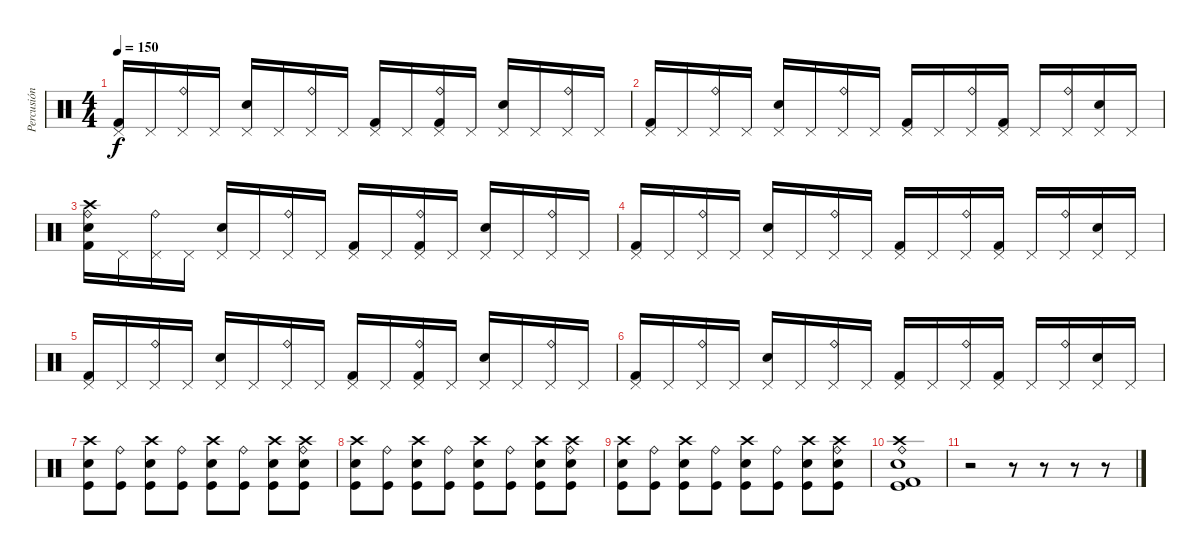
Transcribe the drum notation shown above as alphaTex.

\track ("Percusión" "Percusión") {instrument percussion}
\staff {score}
\articulation defaults
\ts (4 4)
\tempo 150
\clef neutral
\ks c
("Pedal Hi-Hat (hit)" "Kick (hit) 2").16{dy f} "Pedal Hi-Hat (hit)".16 ("Pedal Hi-Hat (hit)" "Ride (bell)").16 "Pedal Hi-Hat (hit)".16 ("Pedal Hi-Hat (hit)" "Electric Snare (hit)").16 "Pedal Hi-Hat (hit)".16 ("Pedal Hi-Hat (hit)" "Ride (bell)").16 "Pedal Hi-Hat (hit)".16 ("Pedal Hi-Hat (hit)" "Kick (hit) 2").16 "Pedal Hi-Hat (hit)".16 ("Pedal Hi-Hat (hit)" "Ride (bell)" "Kick (hit) 2").16 "Pedal Hi-Hat (hit)".16 ("Pedal Hi-Hat (hit)" "Electric Snare (hit)").16 "Pedal Hi-Hat (hit)".16 ("Pedal Hi-Hat (hit)" "Ride (bell)").16 "Pedal Hi-Hat (hit)".16 |
("Pedal Hi-Hat (hit)" "Kick (hit) 2").16 "Pedal Hi-Hat (hit)".16 ("Pedal Hi-Hat (hit)" "Ride (bell)").16 "Pedal Hi-Hat (hit)".16 ("Pedal Hi-Hat (hit)" "Electric Snare (hit)").16 "Pedal Hi-Hat (hit)".16 ("Pedal Hi-Hat (hit)" "Ride (bell)").16 "Pedal Hi-Hat (hit)".16 ("Pedal Hi-Hat (hit)" "Kick (hit) 2").16 "Pedal Hi-Hat (hit)".16 ("Pedal Hi-Hat (hit)" "Ride (bell)").16 ("Pedal Hi-Hat (hit)" "Kick (hit) 2").16 "Pedal Hi-Hat (hit)".16 ("Pedal Hi-Hat (hit)" "Ride (bell)").16 ("Pedal Hi-Hat (hit)" "Electric Snare (hit)").16 "Pedal Hi-Hat (hit)".16 |
("Crash high (hit)" "Ride (bell)" "Electric Snare (hit)" "Kick (hit) 2").16 "Pedal Hi-Hat (hit)".16 ("Pedal Hi-Hat (hit)" "Ride (bell)").16 "Pedal Hi-Hat (hit)".16 ("Pedal Hi-Hat (hit)" "Electric Snare (hit)").16 "Pedal Hi-Hat (hit)".16 ("Pedal Hi-Hat (hit)" "Ride (bell)").16 "Pedal Hi-Hat (hit)".16 ("Pedal Hi-Hat (hit)" "Kick (hit) 2").16 "Pedal Hi-Hat (hit)".16 ("Pedal Hi-Hat (hit)" "Ride (bell)" "Kick (hit) 2").16 "Pedal Hi-Hat (hit)".16 ("Pedal Hi-Hat (hit)" "Electric Snare (hit)").16 "Pedal Hi-Hat (hit)".16 ("Pedal Hi-Hat (hit)" "Ride (bell)").16 "Pedal Hi-Hat (hit)".16 |
("Pedal Hi-Hat (hit)" "Kick (hit) 2").16 "Pedal Hi-Hat (hit)".16 ("Pedal Hi-Hat (hit)" "Ride (bell)").16 "Pedal Hi-Hat (hit)".16 ("Pedal Hi-Hat (hit)" "Electric Snare (hit)").16 "Pedal Hi-Hat (hit)".16 ("Pedal Hi-Hat (hit)" "Ride (bell)").16 "Pedal Hi-Hat (hit)".16 ("Pedal Hi-Hat (hit)" "Kick (hit) 2").16 "Pedal Hi-Hat (hit)".16 ("Pedal Hi-Hat (hit)" "Ride (bell)").16 ("Pedal Hi-Hat (hit)" "Kick (hit) 2").16 "Pedal Hi-Hat (hit)".16 ("Pedal Hi-Hat (hit)" "Ride (bell)").16 ("Pedal Hi-Hat (hit)" "Electric Snare (hit)").16 "Pedal Hi-Hat (hit)".16 |
("Pedal Hi-Hat (hit)" "Kick (hit) 2").16 "Pedal Hi-Hat (hit)".16 ("Pedal Hi-Hat (hit)" "Ride (bell)").16 "Pedal Hi-Hat (hit)".16 ("Pedal Hi-Hat (hit)" "Electric Snare (hit)").16 "Pedal Hi-Hat (hit)".16 ("Pedal Hi-Hat (hit)" "Ride (bell)").16 "Pedal Hi-Hat (hit)".16 ("Pedal Hi-Hat (hit)" "Kick (hit) 2").16 "Pedal Hi-Hat (hit)".16 ("Pedal Hi-Hat (hit)" "Ride (bell)" "Kick (hit) 2").16 "Pedal Hi-Hat (hit)".16 ("Pedal Hi-Hat (hit)" "Electric Snare (hit)").16 "Pedal Hi-Hat (hit)".16 ("Pedal Hi-Hat (hit)" "Ride (bell)").16 "Pedal Hi-Hat (hit)".16 |
("Pedal Hi-Hat (hit)" "Kick (hit) 2").16 "Pedal Hi-Hat (hit)".16 ("Pedal Hi-Hat (hit)" "Ride (bell)").16 "Pedal Hi-Hat (hit)".16 ("Pedal Hi-Hat (hit)" "Electric Snare (hit)").16 "Pedal Hi-Hat (hit)".16 ("Pedal Hi-Hat (hit)" "Ride (bell)").16 "Pedal Hi-Hat (hit)".16 ("Pedal Hi-Hat (hit)" "Kick (hit) 2").16 "Pedal Hi-Hat (hit)".16 ("Pedal Hi-Hat (hit)" "Ride (bell)").16 ("Pedal Hi-Hat (hit)" "Kick (hit) 2").16 "Pedal Hi-Hat (hit)".16 ("Pedal Hi-Hat (hit)" "Ride (bell)").16 ("Pedal Hi-Hat (hit)" "Electric Snare (hit)").16 "Pedal Hi-Hat (hit)".16 |
("Crash high (hit)" "Electric Snare (hit)" "Kick (hit)").8 ("Ride (bell)" "Kick (hit)").8 ("Crash high (hit)" "Electric Snare (hit)" "Kick (hit)").8 ("Ride (bell)" "Kick (hit)").8 ("Crash high (hit)" "Electric Snare (hit)" "Kick (hit)").8 ("Ride (bell)" "Kick (hit)").8 ("Crash high (hit)" "Electric Snare (hit)" "Kick (hit)").8 ("Crash high (hit)" "Ride (bell)" "Electric Snare (hit)" "Kick (hit)").8 |
("Crash high (hit)" "Electric Snare (hit)" "Kick (hit)").8 ("Ride (bell)" "Kick (hit)").8 ("Crash high (hit)" "Electric Snare (hit)" "Kick (hit)").8 ("Ride (bell)" "Kick (hit)").8 ("Crash high (hit)" "Electric Snare (hit)" "Kick (hit)").8 ("Ride (bell)" "Kick (hit)").8 ("Crash high (hit)" "Electric Snare (hit)" "Kick (hit)").8 ("Crash high (hit)" "Ride (bell)" "Electric Snare (hit)" "Kick (hit)").8 |
("Crash high (hit)" "Electric Snare (hit)" "Kick (hit)").8 ("Ride (bell)" "Kick (hit)").8 ("Crash high (hit)" "Electric Snare (hit)" "Kick (hit)").8 ("Ride (bell)" "Kick (hit)").8 ("Crash high (hit)" "Electric Snare (hit)" "Kick (hit)").8 ("Ride (bell)" "Kick (hit)").8 ("Crash high (hit)" "Electric Snare (hit)" "Kick (hit)").8 ("Crash high (hit)" "Ride (bell)" "Electric Snare (hit)" "Kick (hit)").8 |
("Crash high (hit)" "Kick (hit) 2" "Ride (bell)" "Electric Snare (hit)" "Kick (hit)").1 |
r.2 r.8 r.8 r.8 r.8
